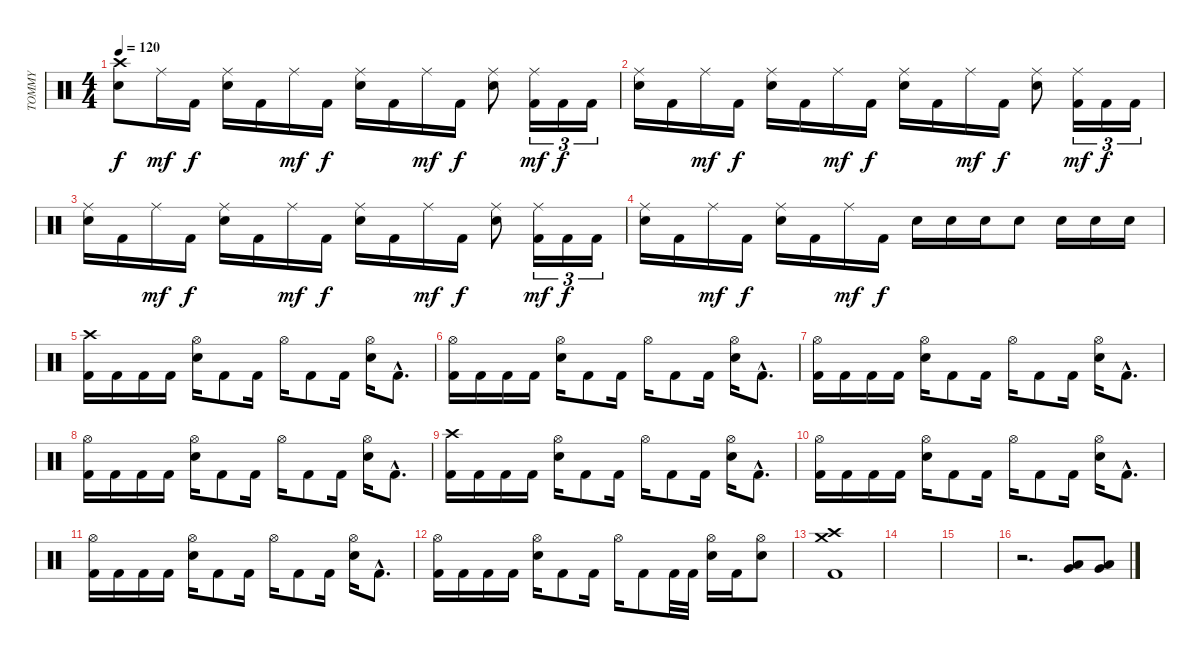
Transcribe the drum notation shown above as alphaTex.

\track ("TOMMY" "TOMMY") {instrument percussion}
\staff {score}
\articulation defaults
\ts (4 4)
\tempo 120
\clef neutral
\ks c
("Snare (hit) 2" "Crash high (hit)").8{dy f} "Ride (middle)".16{dy mf} "Kick (hit) 2".16{dy f} ("Snare (hit) 2" "Ride (middle)").16 "Kick (hit) 2".16 "Ride (middle)".16{dy mf} "Kick (hit) 2".16{dy f} ("Snare (hit) 2" "Ride (middle)").16 "Kick (hit) 2".16 "Ride (middle)".16{dy mf} "Kick (hit) 2".16{dy f} ("Snare (hit) 2" "Ride (middle)").8 ("Kick (hit) 2" "Ride (middle)").16{tu (3 2) dy mf} "Kick (hit) 2".16{tu (3 2) dy f} "Kick (hit) 2".16{tu (3 2)} |
("Snare (hit) 2" "Ride (middle)").16 "Kick (hit) 2".16 "Ride (middle)".16{dy mf} "Kick (hit) 2".16{dy f} ("Snare (hit) 2" "Ride (middle)").16 "Kick (hit) 2".16 "Ride (middle)".16{dy mf} "Kick (hit) 2".16{dy f} ("Snare (hit) 2" "Ride (middle)").16 "Kick (hit) 2".16 "Ride (middle)".16{dy mf} "Kick (hit) 2".16{dy f} ("Snare (hit) 2" "Ride (middle)").8 ("Kick (hit) 2" "Ride (middle)").16{tu (3 2) dy mf} "Kick (hit) 2".16{tu (3 2) dy f} "Kick (hit) 2".16{tu (3 2)} |
("Snare (hit) 2" "Ride (middle)").16 "Kick (hit) 2".16 "Ride (middle)".16{dy mf} "Kick (hit) 2".16{dy f} ("Snare (hit) 2" "Ride (middle)").16 "Kick (hit) 2".16 "Ride (middle)".16{dy mf} "Kick (hit) 2".16{dy f} ("Snare (hit) 2" "Ride (middle)").16 "Kick (hit) 2".16 "Ride (middle)".16{dy mf} "Kick (hit) 2".16{dy f} ("Snare (hit) 2" "Ride (middle)").8 ("Kick (hit) 2" "Ride (middle)").16{tu (3 2) dy mf} "Kick (hit) 2".16{tu (3 2) dy f} "Kick (hit) 2".16{tu (3 2)} |
("Snare (hit) 2" "Ride (middle)").16 "Kick (hit) 2".16 "Ride (middle)".16{dy mf} "Kick (hit) 2".16{dy f} ("Snare (hit) 2" "Ride (middle)").16 "Kick (hit) 2".16 "Ride (middle)".16{dy mf} "Kick (hit) 2".16{dy f} "Snare (hit) 2".16 "Snare (hit) 2".16 "Snare (hit) 2".16 "Snare (hit) 2".8 "Snare (hit) 2".16 "Snare (hit) 2".16 "Snare (hit) 2".16 |
("Kick (hit) 2" "Crash high (hit)").16 "Kick (hit) 2".16 "Kick (hit) 2".16 "Kick (hit) 2".16 ("Snare (hit) 2" "Hi-Hat (open)").16 "Kick (hit) 2".8 "Kick (hit) 2".16 "Hi-Hat (open)".16 "Kick (hit) 2".8 "Kick (hit) 2".16 ("Snare (hit) 2" "Hi-Hat (open)").16 "Kick (hit) 2"{hac}.8{d} |
("Kick (hit) 2" "Hi-Hat (open)").16 "Kick (hit) 2".16 "Kick (hit) 2".16 "Kick (hit) 2".16 ("Snare (hit) 2" "Hi-Hat (open)").16 "Kick (hit) 2".8 "Kick (hit) 2".16 "Hi-Hat (open)".16 "Kick (hit) 2".8 "Kick (hit) 2".16 ("Snare (hit) 2" "Hi-Hat (open)").16 "Kick (hit) 2"{hac}.8{d} |
("Kick (hit) 2" "Hi-Hat (open)").16 "Kick (hit) 2".16 "Kick (hit) 2".16 "Kick (hit) 2".16 ("Snare (hit) 2" "Hi-Hat (open)").16 "Kick (hit) 2".8 "Kick (hit) 2".16 "Hi-Hat (open)".16 "Kick (hit) 2".8 "Kick (hit) 2".16 ("Snare (hit) 2" "Hi-Hat (open)").16 "Kick (hit) 2"{hac}.8{d} |
("Kick (hit) 2" "Hi-Hat (open)").16 "Kick (hit) 2".16 "Kick (hit) 2".16 "Kick (hit) 2".16 ("Snare (hit) 2" "Hi-Hat (open)").16 "Kick (hit) 2".8 "Kick (hit) 2".16 "Hi-Hat (open)".16 "Kick (hit) 2".8 "Kick (hit) 2".16 ("Snare (hit) 2" "Hi-Hat (open)").16 "Kick (hit) 2"{hac}.8{d} |
("Kick (hit) 2" "Crash high (hit)").16 "Kick (hit) 2".16 "Kick (hit) 2".16 "Kick (hit) 2".16 ("Snare (hit) 2" "Hi-Hat (open)").16 "Kick (hit) 2".8 "Kick (hit) 2".16 "Hi-Hat (open)".16 "Kick (hit) 2".8 "Kick (hit) 2".16 ("Snare (hit) 2" "Hi-Hat (open)").16 "Kick (hit) 2"{hac}.8{d} |
("Kick (hit) 2" "Hi-Hat (open)").16 "Kick (hit) 2".16 "Kick (hit) 2".16 "Kick (hit) 2".16 ("Snare (hit) 2" "Hi-Hat (open)").16 "Kick (hit) 2".8 "Kick (hit) 2".16 "Hi-Hat (open)".16 "Kick (hit) 2".8 "Kick (hit) 2".16 ("Snare (hit) 2" "Hi-Hat (open)").16 "Kick (hit) 2"{hac}.8{d} |
("Kick (hit) 2" "Hi-Hat (open)").16 "Kick (hit) 2".16 "Kick (hit) 2".16 "Kick (hit) 2".16 ("Snare (hit) 2" "Hi-Hat (open)").16 "Kick (hit) 2".8 "Kick (hit) 2".16 "Hi-Hat (open)".16 "Kick (hit) 2".8 "Kick (hit) 2".16 ("Snare (hit) 2" "Hi-Hat (open)").16 "Kick (hit) 2"{hac}.8{d} |
("Kick (hit) 2" "Hi-Hat (open)").16 "Kick (hit) 2".16 "Kick (hit) 2".16 "Kick (hit) 2".16 ("Snare (hit) 2" "Hi-Hat (open)").16 "Kick (hit) 2".8 "Kick (hit) 2".16 "Hi-Hat (open)".16 "Kick (hit) 2".8 "Kick (hit) 2".32 "Kick (hit) 2".32 ("Snare (hit) 2" "Hi-Hat (open)").16 "Kick (hit) 2".16 ("Snare (hit) 2" "Hi-Hat (open)").8 |
("Kick (hit) 2" "Crash high (hit)" "Crash medium (hit)").1 |
|
|
r.2{d} ("Very Low Tom (hit)" "Low Floor Tom (hit)").8 ("Very Low Tom (hit)" "Low Floor Tom (hit)").8
